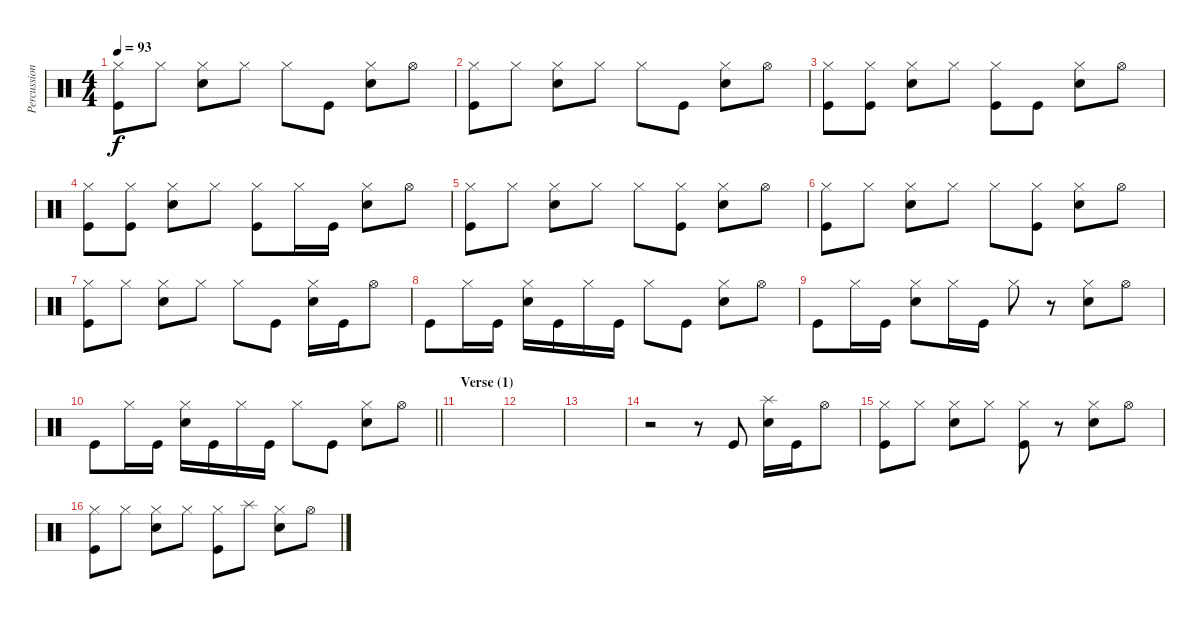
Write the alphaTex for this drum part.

\track ("Percussion" "Percussion") {instrument percussion}
\staff {score}
\articulation defaults
\ts (4 4)
\tempo 93
\clef neutral
\ks c
("Hi-Hat (closed)" "Kick (hit)").8{dy f} "Hi-Hat (closed)".8 ("Hi-Hat (closed)" "Snare (hit) 2").8 "Hi-Hat (closed)".8 "Hi-Hat (closed)".8 "Kick (hit)".8 ("Hi-Hat (closed)" "Snare (hit) 2").8 "Hi-Hat (open)".8 |
("Hi-Hat (closed)" "Kick (hit)").8 "Hi-Hat (closed)".8 ("Hi-Hat (closed)" "Snare (hit) 2").8 "Hi-Hat (closed)".8 "Hi-Hat (closed)".8 "Kick (hit)".8 ("Hi-Hat (closed)" "Snare (hit) 2").8 "Hi-Hat (open)".8 |
("Hi-Hat (closed)" "Kick (hit)").8 ("Hi-Hat (closed)" "Kick (hit)").8 ("Hi-Hat (closed)" "Snare (hit) 2").8 "Hi-Hat (closed)".8 ("Hi-Hat (closed)" "Kick (hit)").8 "Kick (hit)".8 ("Hi-Hat (closed)" "Snare (hit) 2").8 "Hi-Hat (open)".8 |
("Hi-Hat (closed)" "Kick (hit)").8 ("Hi-Hat (closed)" "Kick (hit)").8 ("Hi-Hat (closed)" "Snare (hit) 2").8 "Hi-Hat (closed)".8 ("Hi-Hat (closed)" "Kick (hit)").8 "Hi-Hat (closed)".16 "Kick (hit)".16 ("Hi-Hat (closed)" "Snare (hit) 2").8 "Hi-Hat (open)".8 |
("Hi-Hat (closed)" "Kick (hit)").8 "Hi-Hat (closed)".8 ("Hi-Hat (closed)" "Snare (hit) 2").8 "Hi-Hat (closed)".8 "Hi-Hat (closed)".8 ("Hi-Hat (closed)" "Kick (hit)").8 ("Hi-Hat (closed)" "Snare (hit) 2").8 "Hi-Hat (open)".8 |
("Hi-Hat (closed)" "Kick (hit)").8 "Hi-Hat (closed)".8 ("Hi-Hat (closed)" "Snare (hit) 2").8 "Hi-Hat (closed)".8 "Hi-Hat (closed)".8 ("Hi-Hat (closed)" "Kick (hit)").8 ("Hi-Hat (closed)" "Snare (hit) 2").8 "Hi-Hat (open)".8 |
("Hi-Hat (closed)" "Kick (hit)").8 "Hi-Hat (closed)".8 ("Hi-Hat (closed)" "Snare (hit) 2").8 "Hi-Hat (closed)".8 "Hi-Hat (closed)".8 "Kick (hit)".8 ("Hi-Hat (closed)" "Snare (hit) 2").16 "Kick (hit)".16 "Hi-Hat (open)".8 |
"Kick (hit)".8 "Hi-Hat (closed)".16 "Kick (hit)".16 ("Hi-Hat (closed)" "Snare (hit) 2").16 "Kick (hit)".16 "Hi-Hat (closed)".16 "Kick (hit)".16 "Hi-Hat (closed)".8 "Kick (hit)".8 ("Hi-Hat (closed)" "Snare (hit) 2").8 "Hi-Hat (open)".8 |
"Kick (hit)".8 "Hi-Hat (closed)".16 "Kick (hit)".16 ("Hi-Hat (closed)" "Snare (hit) 2").8 "Hi-Hat (closed)".16 "Kick (hit)".16 "Hi-Hat (closed)".8 r.8 ("Hi-Hat (closed)" "Snare (hit) 2").8 "Hi-Hat (open)".8 |
\barLineRight lightlight "Kick (hit)".8 "Hi-Hat (closed)".16 "Kick (hit)".16
("Hi-Hat (closed)" "Snare (hit) 2").16 "Kick (hit)".16 "Hi-Hat (closed)".16 "Kick (hit)".16 "Hi-Hat (closed)".8 "Kick (hit)".8 ("Hi-Hat (closed)" "Snare (hit) 2").8 "Hi-Hat (open)".8 |
\section ("" "Verse (1)")
|
|
|
r.2 r.8 "Kick (hit)".8 ("Splash (hit)" "Snare (hit) 2").16 "Kick (hit)".16 "Hi-Hat (open)".8 |
("Hi-Hat (closed)" "Kick (hit)").8 "Hi-Hat (closed)".8 ("Hi-Hat (closed)" "Snare (hit) 2").8 "Hi-Hat (closed)".8 ("Hi-Hat (closed)" "Kick (hit)").8 r.8 ("Hi-Hat (closed)" "Snare (hit) 2").8 "Hi-Hat (open)".8 |
("Hi-Hat (closed)" "Kick (hit)").8 "Hi-Hat (closed)".8 ("Hi-Hat (closed)" "Snare (hit) 2").8 "Hi-Hat (closed)".8 ("Hi-Hat (closed)" "Kick (hit)").8 "Splash (hit)".8 ("Hi-Hat (closed)" "Snare (hit) 2").8 "Hi-Hat (open)".8
